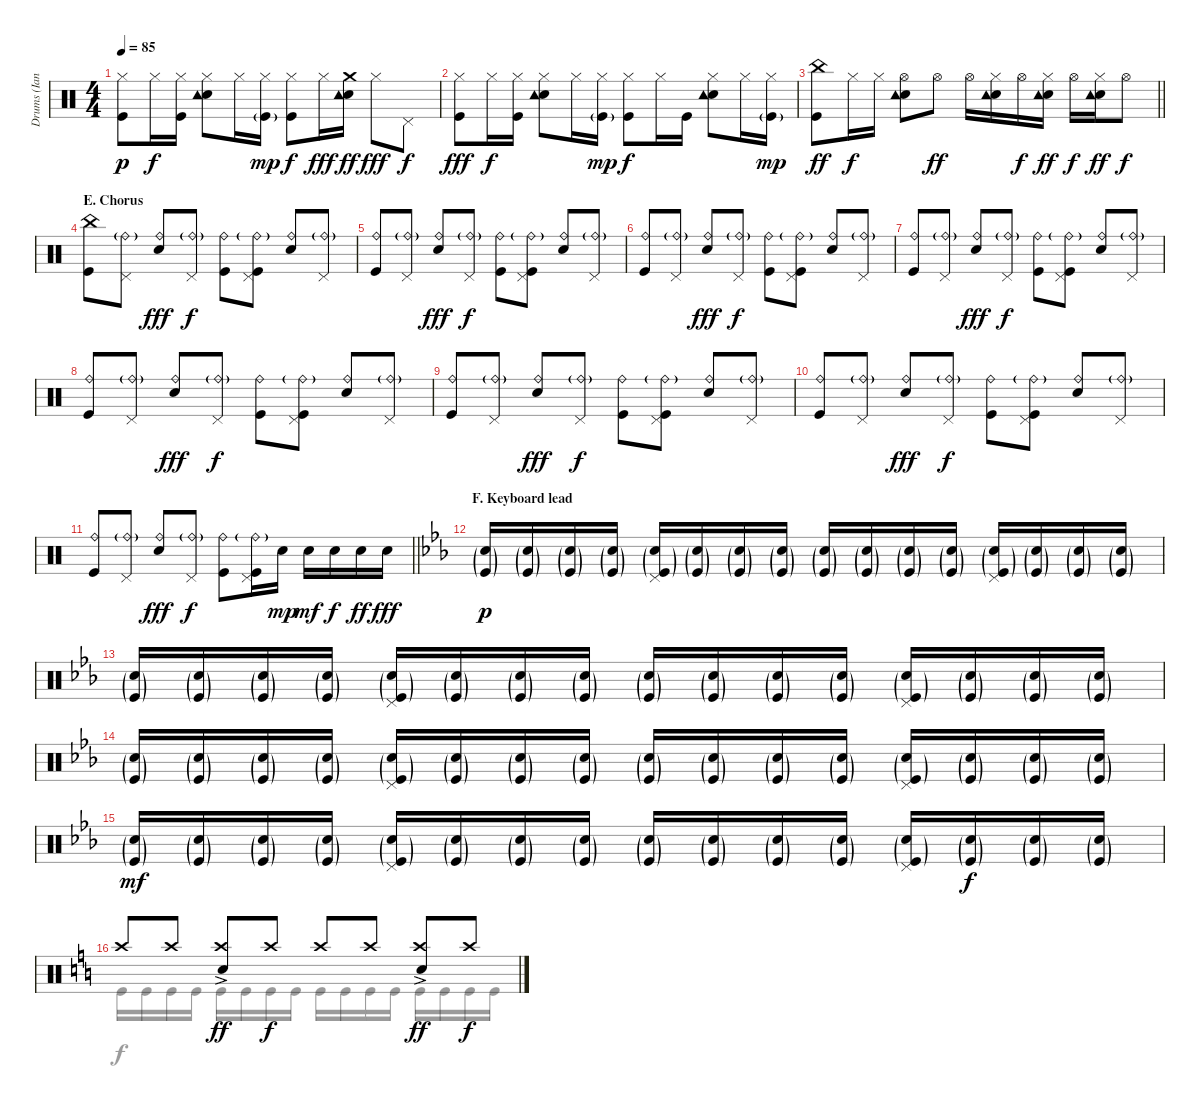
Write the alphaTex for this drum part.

\track ("Drums (Ian Paice)" "Drums (Ian") {instrument percussion}
\staff {score}
\articulation defaults
\voice
\ts (4 4)
\tempo 85
\clef neutral
\ks aminor
("Hi-Hat (closed)" "Kick (hit)").8{dy p} "Hi-Hat (closed)".16{dy f} ("Hi-Hat (closed)" "Kick (hit)").16 ("Hi-Hat (closed)" "Electric Snare (hit)" "Tambourine (hit)").8 "Hi-Hat (closed)".16 ("Hi-Hat (closed)" "Kick (hit)"{g}).16{dy mp} ("Hi-Hat (closed)" "Kick (hit)").8{dy f} "Hi-Hat (closed)".16{dy fff} ("Crash medium (hit)" "Electric Snare (hit)" "Tambourine (hit)").16{dy ff} "Hi-Hat (closed)".8{dy fff} "Pedal Hi-Hat (hit)".8{dy f} |
("Hi-Hat (closed)" "Kick (hit)").8{dy fff} "Hi-Hat (closed)".16{dy f} ("Hi-Hat (closed)" "Kick (hit)").16 ("Hi-Hat (closed)" "Electric Snare (hit)" "Tambourine (hit)").8 "Hi-Hat (closed)".16 ("Hi-Hat (closed)" "Kick (hit)"{g}).16{dy mp} ("Hi-Hat (closed)" "Kick (hit)").8{dy f} "Hi-Hat (closed)".16 "Kick (hit)".16 ("Hi-Hat (closed)" "Electric Snare (hit)" "Tambourine (hit)").8 "Hi-Hat (closed)".16 ("Hi-Hat (closed)" "Kick (hit)"{g}).16{dy mp} |
\barLineRight lightlight
("China (hit)" "Kick (hit)").8{dy ff} "Hi-Hat (closed)".16{dy f} "Hi-Hat (closed)".16 ("Hi-Hat (open)" "Electric Snare (hit)" "Tambourine (hit)").8 "Hi-Hat (open)".8{dy ff} "Hi-Hat (open)".16 ("Hi-Hat (closed)" "Electric Snare (hit)" "Tambourine (hit)").16 "Hi-Hat (open)".16{dy f} ("Hi-Hat (closed)" "Electric Snare (hit)" "Tambourine (hit)").16{dy ff} "Hi-Hat (open)".16{dy f} ("Hi-Hat (closed)" "Electric Snare (hit)" "Tambourine (hit)").16{dy ff} "Hi-Hat (open)".8{dy f} |
\section ("" "E. Chorus")
\ks c
("China (hit)" "Kick (hit)").8 ("Ride (bell)"{g} "Pedal Hi-Hat (hit)").8 ("Ride (bell)" "Electric Snare (hit)").8{dy fff} ("Ride (bell)"{g} "Pedal Hi-Hat (hit)").8{dy f} ("Ride (bell)" "Kick (hit)").8 ("Ride (bell)"{g} "Pedal Hi-Hat (hit)" "Kick (hit)").8 ("Ride (bell)" "Electric Snare (hit)").8 ("Ride (bell)"{g} "Pedal Hi-Hat (hit)").8 |
("Ride (bell)" "Kick (hit)").8 ("Ride (bell)"{g} "Pedal Hi-Hat (hit)").8 ("Ride (bell)" "Electric Snare (hit)").8{dy fff} ("Ride (bell)"{g} "Pedal Hi-Hat (hit)").8{dy f} ("Ride (bell)" "Kick (hit)").8 ("Ride (bell)"{g} "Pedal Hi-Hat (hit)" "Kick (hit)").8 ("Ride (bell)" "Electric Snare (hit)").8 ("Ride (bell)"{g} "Pedal Hi-Hat (hit)").8 |
("Ride (bell)" "Kick (hit)").8 ("Ride (bell)"{g} "Pedal Hi-Hat (hit)").8 ("Ride (bell)" "Electric Snare (hit)").8{dy fff} ("Ride (bell)"{g} "Pedal Hi-Hat (hit)").8{dy f} ("Ride (bell)" "Kick (hit)").8 ("Ride (bell)"{g} "Pedal Hi-Hat (hit)" "Kick (hit)").8 ("Ride (bell)" "Electric Snare (hit)").8 ("Ride (bell)"{g} "Pedal Hi-Hat (hit)").8 |
("Ride (bell)" "Kick (hit)").8 ("Ride (bell)"{g} "Pedal Hi-Hat (hit)").8 ("Ride (bell)" "Electric Snare (hit)").8{dy fff} ("Ride (bell)"{g} "Pedal Hi-Hat (hit)").8{dy f} ("Ride (bell)" "Kick (hit)").8 ("Ride (bell)"{g} "Pedal Hi-Hat (hit)" "Kick (hit)").8 ("Ride (bell)" "Electric Snare (hit)").8 ("Ride (bell)"{g} "Pedal Hi-Hat (hit)").8 |
("Ride (bell)" "Kick (hit)").8 ("Ride (bell)"{g} "Pedal Hi-Hat (hit)").8 ("Ride (bell)" "Electric Snare (hit)").8{dy fff} ("Ride (bell)"{g} "Pedal Hi-Hat (hit)").8{dy f} ("Ride (bell)" "Kick (hit)").8 ("Ride (bell)"{g} "Pedal Hi-Hat (hit)" "Kick (hit)").8 ("Ride (bell)" "Electric Snare (hit)").8 ("Ride (bell)"{g} "Pedal Hi-Hat (hit)").8 |
("Ride (bell)" "Kick (hit)").8 ("Ride (bell)"{g} "Pedal Hi-Hat (hit)").8 ("Ride (bell)" "Electric Snare (hit)").8{dy fff} ("Ride (bell)"{g} "Pedal Hi-Hat (hit)").8{dy f} ("Ride (bell)" "Kick (hit)").8 ("Ride (bell)"{g} "Pedal Hi-Hat (hit)" "Kick (hit)").8 ("Ride (bell)" "Electric Snare (hit)").8 ("Ride (bell)"{g} "Pedal Hi-Hat (hit)").8 |
("Ride (bell)" "Kick (hit)").8 ("Ride (bell)"{g} "Pedal Hi-Hat (hit)").8 ("Ride (bell)" "Electric Snare (hit)").8{dy fff} ("Ride (bell)"{g} "Pedal Hi-Hat (hit)").8{dy f} ("Ride (bell)" "Kick (hit)").8 ("Ride (bell)"{g} "Pedal Hi-Hat (hit)" "Kick (hit)").8 ("Ride (bell)" "Electric Snare (hit)").8 ("Ride (bell)"{g} "Pedal Hi-Hat (hit)").8 |
\barLineRight lightlight
("Ride (bell)" "Kick (hit)").8 ("Ride (bell)"{g} "Pedal Hi-Hat (hit)").8 ("Ride (bell)" "Electric Snare (hit)").8{dy fff} ("Ride (bell)"{g} "Pedal Hi-Hat (hit)").8{dy f} ("Ride (bell)" "Kick (hit)").8 ("Ride (bell)"{g} "Pedal Hi-Hat (hit)" "Kick (hit)").16 "Electric Snare (hit)".16{dy mp} "Electric Snare (hit)".16{dy mf} "Electric Snare (hit)".16{dy f} "Electric Snare (hit)".16{dy ff} "Electric Snare (hit)".16{dy fff} |
\section ("" "F. Keyboard lead")
\ks cminor
("Electric Snare (hit)"{g} "Kick (hit)"{g}).16{dy p} ("Electric Snare (hit)"{g} "Kick (hit)"{g}).16 ("Electric Snare (hit)"{g} "Kick (hit)"{g}).16 ("Electric Snare (hit)"{g} "Kick (hit)"{g}).16 ("Pedal Hi-Hat (hit)" "Electric Snare (hit)"{g} "Kick (hit)"{g}).16 ("Electric Snare (hit)"{g} "Kick (hit)"{g}).16 ("Electric Snare (hit)"{g} "Kick (hit)"{g}).16 ("Electric Snare (hit)"{g} "Kick (hit)"{g}).16 ("Electric Snare (hit)"{g} "Kick (hit)"{g}).16 ("Electric Snare (hit)"{g} "Kick (hit)"{g}).16 ("Electric Snare (hit)"{g} "Kick (hit)"{g}).16 ("Electric Snare (hit)"{g} "Kick (hit)"{g}).16 ("Pedal Hi-Hat (hit)" "Electric Snare (hit)"{g} "Kick (hit)"{g}).16 ("Electric Snare (hit)"{g} "Kick (hit)"{g}).16 ("Electric Snare (hit)"{g} "Kick (hit)"{g}).16 ("Electric Snare (hit)"{g} "Kick (hit)"{g}).16 |
("Electric Snare (hit)"{g} "Kick (hit)"{g}).16 ("Electric Snare (hit)"{g} "Kick (hit)"{g}).16 ("Electric Snare (hit)"{g} "Kick (hit)"{g}).16 ("Electric Snare (hit)"{g} "Kick (hit)"{g}).16 ("Pedal Hi-Hat (hit)" "Electric Snare (hit)"{g} "Kick (hit)"{g}).16 ("Electric Snare (hit)"{g} "Kick (hit)"{g}).16 ("Electric Snare (hit)"{g} "Kick (hit)"{g}).16 ("Electric Snare (hit)"{g} "Kick (hit)"{g}).16 ("Electric Snare (hit)"{g} "Kick (hit)"{g}).16 ("Electric Snare (hit)"{g} "Kick (hit)"{g}).16 ("Electric Snare (hit)"{g} "Kick (hit)"{g}).16 ("Electric Snare (hit)"{g} "Kick (hit)"{g}).16 ("Pedal Hi-Hat (hit)" "Electric Snare (hit)"{g} "Kick (hit)"{g}).16 ("Electric Snare (hit)"{g} "Kick (hit)"{g}).16 ("Electric Snare (hit)"{g} "Kick (hit)"{g}).16 ("Electric Snare (hit)"{g} "Kick (hit)"{g}).16 |
("Electric Snare (hit)"{g} "Kick (hit)"{g}).16 ("Electric Snare (hit)"{g} "Kick (hit)"{g}).16 ("Electric Snare (hit)"{g} "Kick (hit)"{g}).16 ("Electric Snare (hit)"{g} "Kick (hit)"{g}).16 ("Pedal Hi-Hat (hit)" "Electric Snare (hit)"{g} "Kick (hit)"{g}).16 ("Electric Snare (hit)"{g} "Kick (hit)"{g}).16 ("Electric Snare (hit)"{g} "Kick (hit)"{g}).16 ("Electric Snare (hit)"{g} "Kick (hit)"{g}).16 ("Electric Snare (hit)"{g} "Kick (hit)"{g}).16 ("Electric Snare (hit)"{g} "Kick (hit)"{g}).16 ("Electric Snare (hit)"{g} "Kick (hit)"{g}).16 ("Electric Snare (hit)"{g} "Kick (hit)"{g}).16 ("Pedal Hi-Hat (hit)" "Electric Snare (hit)"{g} "Kick (hit)"{g}).16 ("Electric Snare (hit)"{g} "Kick (hit)"{g}).16 ("Electric Snare (hit)"{g} "Kick (hit)"{g}).16 ("Electric Snare (hit)"{g} "Kick (hit)"{g}).16 |
("Electric Snare (hit)"{g} "Kick (hit)"{g}).16{dy mf} ("Electric Snare (hit)"{g} "Kick (hit)"{g}).16 ("Electric Snare (hit)"{g} "Kick (hit)"{g}).16 ("Electric Snare (hit)"{g} "Kick (hit)"{g}).16 ("Pedal Hi-Hat (hit)" "Electric Snare (hit)"{g} "Kick (hit)"{g}).16 ("Electric Snare (hit)"{g} "Kick (hit)"{g}).16 ("Electric Snare (hit)"{g} "Kick (hit)"{g}).16 ("Electric Snare (hit)"{g} "Kick (hit)"{g}).16 ("Electric Snare (hit)"{g} "Kick (hit)"{g}).16 ("Electric Snare (hit)"{g} "Kick (hit)"{g}).16 ("Electric Snare (hit)"{g} "Kick (hit)"{g}).16 ("Electric Snare (hit)"{g} "Kick (hit)"{g}).16 ("Pedal Hi-Hat (hit)" "Electric Snare (hit)"{g} "Kick (hit)"{g}).16 ("Electric Snare (hit)"{g} "Kick (hit)"{g}).16{dy f} ("Electric Snare (hit)"{g} "Kick (hit)"{g}).16 ("Electric Snare (hit)"{g} "Kick (hit)"{g}).16 |
\ks aminor "Crash high (hit)".8 "Crash high (hit)".8
("Crash high (hit)"{ac} "Electric Snare (hit)").8{dy ff} "Crash high (hit)".8{dy f} "Crash high (hit)".8 "Crash high (hit)".8 ("Crash high (hit)"{ac} "Electric Snare (hit)").8{dy ff} "Crash high (hit)".8{dy f}
\voice
\clef neutral
\ottava regular
\simile none
\ks aminor
|
|
\barLineRight lightlight
|
\ks c
|
|
|
|
|
|
|
\barLineRight lightlight
|
\ks cminor
|
|
|
|
\ks aminor "Kick (hit)".16 "Kick (hit)".16 "Kick (hit)".16 "Kick (hit)".16 "Kick (hit)".16 "Kick (hit)".16 "Kick (hit)".16 "Kick (hit)".16 "Kick (hit)".16 "Kick (hit)".16 "Kick (hit)".16 "Kick (hit)".16 "Kick (hit)".16 "Kick (hit)".16 "Kick (hit)".16 "Kick (hit)".16
